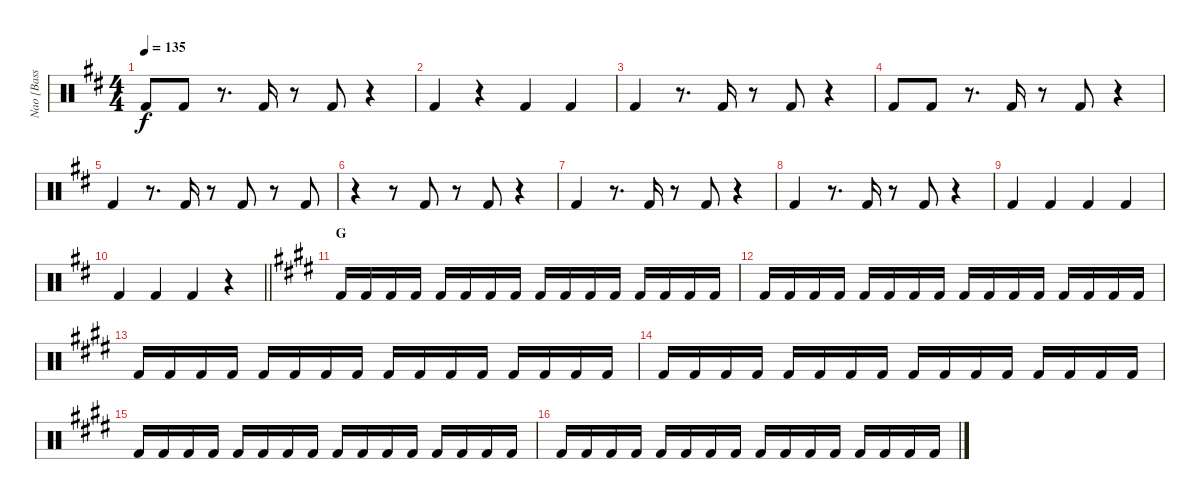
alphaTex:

\track ("Nao [Bass Drum]" "Nao [Bass ") {instrument percussion}
\staff {score}
\articulation defaults
\ts (4 4)
\tempo 135
\clef neutral
\ks d "Kick (hit) 2".8{dy f} "Kick (hit) 2".8
r.8{d} "Kick (hit) 2".16 r.8 "Kick (hit) 2".8 r.4 |
"Kick (hit) 2".4 r.4 "Kick (hit) 2".4 "Kick (hit) 2".4 |
"Kick (hit) 2".4 r.8{d} "Kick (hit) 2".16 r.8 "Kick (hit) 2".8 r.4 |
"Kick (hit) 2".8 "Kick (hit) 2".8 r.8{d} "Kick (hit) 2".16 r.8 "Kick (hit) 2".8 r.4 |
"Kick (hit) 2".4 r.8{d} "Kick (hit) 2".16 r.8 "Kick (hit) 2".8 r.8 "Kick (hit) 2".8 |
r.4 r.8 "Kick (hit) 2".8 r.8 "Kick (hit) 2".8 r.4 |
"Kick (hit) 2".4 r.8{d} "Kick (hit) 2".16 r.8 "Kick (hit) 2".8 r.4 |
"Kick (hit) 2".4 r.8{d} "Kick (hit) 2".16 r.8 "Kick (hit) 2".8 r.4 |
"Kick (hit) 2".4 "Kick (hit) 2".4 "Kick (hit) 2".4 "Kick (hit) 2".4 |
\barLineRight lightlight "Kick (hit) 2".4 "Kick (hit) 2".4 "Kick (hit) 2".4
r.4 |
\section ("" "G")
\ks e "Kick (hit) 2".16 "Kick (hit) 2".16 "Kick (hit) 2".16 "Kick (hit) 2".16 "Kick (hit) 2".16 "Kick (hit) 2".16 "Kick (hit) 2".16 "Kick (hit) 2".16 "Kick (hit) 2".16 "Kick (hit) 2".16 "Kick (hit) 2".16 "Kick (hit) 2".16 "Kick (hit) 2".16 "Kick (hit) 2".16 "Kick (hit) 2".16 "Kick (hit) 2".16
|
"Kick (hit) 2".16 "Kick (hit) 2".16 "Kick (hit) 2".16 "Kick (hit) 2".16 "Kick (hit) 2".16 "Kick (hit) 2".16 "Kick (hit) 2".16 "Kick (hit) 2".16 "Kick (hit) 2".16 "Kick (hit) 2".16 "Kick (hit) 2".16 "Kick (hit) 2".16 "Kick (hit) 2".16 "Kick (hit) 2".16 "Kick (hit) 2".16 "Kick (hit) 2".16 |
"Kick (hit) 2".16 "Kick (hit) 2".16 "Kick (hit) 2".16 "Kick (hit) 2".16 "Kick (hit) 2".16 "Kick (hit) 2".16 "Kick (hit) 2".16 "Kick (hit) 2".16 "Kick (hit) 2".16 "Kick (hit) 2".16 "Kick (hit) 2".16 "Kick (hit) 2".16 "Kick (hit) 2".16 "Kick (hit) 2".16 "Kick (hit) 2".16 "Kick (hit) 2".16 |
"Kick (hit) 2".16 "Kick (hit) 2".16 "Kick (hit) 2".16 "Kick (hit) 2".16 "Kick (hit) 2".16 "Kick (hit) 2".16 "Kick (hit) 2".16 "Kick (hit) 2".16 "Kick (hit) 2".16 "Kick (hit) 2".16 "Kick (hit) 2".16 "Kick (hit) 2".16 "Kick (hit) 2".16 "Kick (hit) 2".16 "Kick (hit) 2".16 "Kick (hit) 2".16 |
"Kick (hit) 2".16 "Kick (hit) 2".16 "Kick (hit) 2".16 "Kick (hit) 2".16 "Kick (hit) 2".16 "Kick (hit) 2".16 "Kick (hit) 2".16 "Kick (hit) 2".16 "Kick (hit) 2".16 "Kick (hit) 2".16 "Kick (hit) 2".16 "Kick (hit) 2".16 "Kick (hit) 2".16 "Kick (hit) 2".16 "Kick (hit) 2".16 "Kick (hit) 2".16 |
"Kick (hit) 2".16 "Kick (hit) 2".16 "Kick (hit) 2".16 "Kick (hit) 2".16 "Kick (hit) 2".16 "Kick (hit) 2".16 "Kick (hit) 2".16 "Kick (hit) 2".16 "Kick (hit) 2".16 "Kick (hit) 2".16 "Kick (hit) 2".16 "Kick (hit) 2".16 "Kick (hit) 2".16 "Kick (hit) 2".16 "Kick (hit) 2".16 "Kick (hit) 2".16
